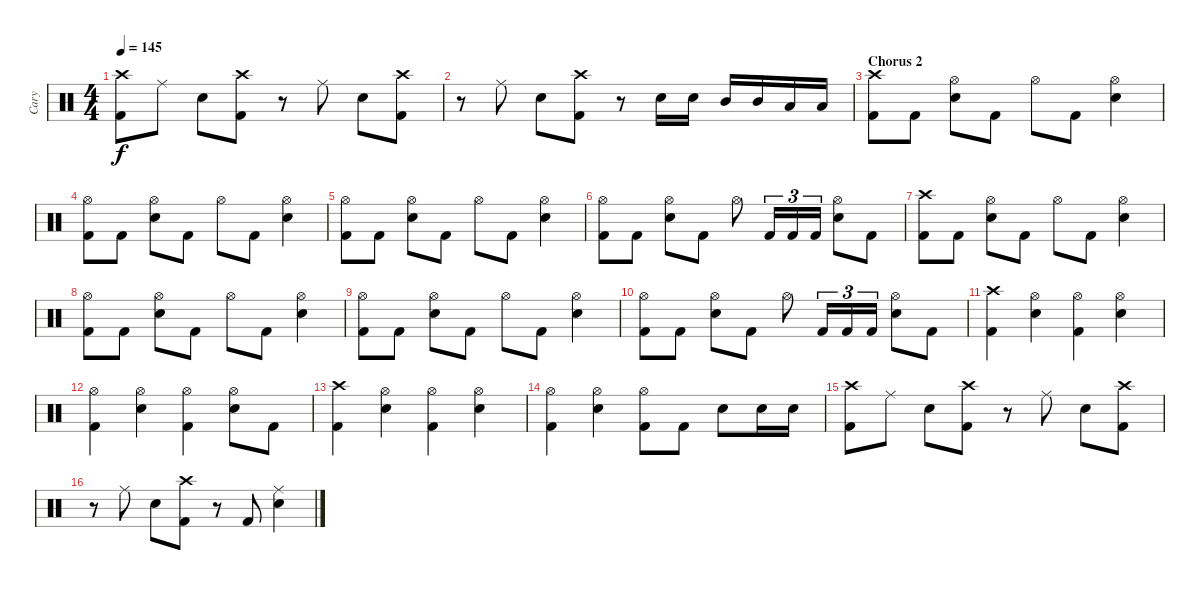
\track ("Cary" "Cary") {instrument percussion}
\staff {score}
\articulation defaults
\ts (4 4)
\tempo 145
\clef neutral
\ks c
("Crash high (hit)" "Kick (hit) 2").8{dy f} "Ride (middle)".8 "Electric Snare (hit)".8 ("Crash high (hit)" "Kick (hit) 2").8 r.8 "Ride (middle)".8 "Electric Snare (hit)".8 ("Crash high (hit)" "Kick (hit) 2").8 |
r.8 "Ride (middle)".8 "Electric Snare (hit)".8 ("Crash high (hit)" "Kick (hit) 2").8 r.8 "Electric Snare (hit)".16 "Electric Snare (hit)".16 "Mid Tom (hit)".16 "Mid Tom (hit)".16 "Low Tom (hit)".16 "Low Tom (hit)".16 |
\section ("" "Chorus 2")
("Crash high (hit)" "Kick (hit) 2").8 "Kick (hit) 2".8 ("Hi-Hat (open)" "Electric Snare (hit)").8 "Kick (hit) 2".8 "Hi-Hat (open)".8 "Kick (hit) 2".8 ("Hi-Hat (open)" "Electric Snare (hit)").4 |
("Hi-Hat (open)" "Kick (hit) 2").8 "Kick (hit) 2".8 ("Hi-Hat (open)" "Electric Snare (hit)").8 "Kick (hit) 2".8 "Hi-Hat (open)".8 "Kick (hit) 2".8 ("Hi-Hat (open)" "Electric Snare (hit)").4 |
("Hi-Hat (open)" "Kick (hit) 2").8 "Kick (hit) 2".8 ("Hi-Hat (open)" "Electric Snare (hit)").8 "Kick (hit) 2".8 "Hi-Hat (open)".8 "Kick (hit) 2".8 ("Hi-Hat (open)" "Electric Snare (hit)").4 |
("Hi-Hat (open)" "Kick (hit) 2").8 "Kick (hit) 2".8 ("Hi-Hat (open)" "Electric Snare (hit)").8 "Kick (hit) 2".8 "Hi-Hat (open)".8 "Kick (hit) 2".16{tu (3 2)} "Kick (hit) 2".16{tu (3 2)} "Kick (hit) 2".16{tu (3 2)} ("Hi-Hat (open)" "Electric Snare (hit)").8 "Kick (hit) 2".8 |
("Crash high (hit)" "Kick (hit) 2").8 "Kick (hit) 2".8 ("Hi-Hat (open)" "Electric Snare (hit)").8 "Kick (hit) 2".8 "Hi-Hat (open)".8 "Kick (hit) 2".8 ("Hi-Hat (open)" "Electric Snare (hit)").4 |
("Hi-Hat (open)" "Kick (hit) 2").8 "Kick (hit) 2".8 ("Hi-Hat (open)" "Electric Snare (hit)").8 "Kick (hit) 2".8 "Hi-Hat (open)".8 "Kick (hit) 2".8 ("Hi-Hat (open)" "Electric Snare (hit)").4 |
("Hi-Hat (open)" "Kick (hit) 2").8 "Kick (hit) 2".8 ("Hi-Hat (open)" "Electric Snare (hit)").8 "Kick (hit) 2".8 "Hi-Hat (open)".8 "Kick (hit) 2".8 ("Hi-Hat (open)" "Electric Snare (hit)").4 |
("Hi-Hat (open)" "Kick (hit) 2").8 "Kick (hit) 2".8 ("Hi-Hat (open)" "Electric Snare (hit)").8 "Kick (hit) 2".8 "Hi-Hat (open)".8 "Kick (hit) 2".16{tu (3 2)} "Kick (hit) 2".16{tu (3 2)} "Kick (hit) 2".16{tu (3 2)} ("Hi-Hat (open)" "Electric Snare (hit)").8 "Kick (hit) 2".8 |
("Crash high (hit)" "Kick (hit) 2").4 ("Hi-Hat (open)" "Electric Snare (hit)").4 ("Hi-Hat (open)" "Kick (hit) 2").4 ("Hi-Hat (open)" "Electric Snare (hit)").4 |
("Hi-Hat (open)" "Kick (hit) 2").4 ("Hi-Hat (open)" "Electric Snare (hit)").4 ("Hi-Hat (open)" "Kick (hit) 2").4 ("Hi-Hat (open)" "Electric Snare (hit)").8 "Kick (hit) 2".8 |
("Crash high (hit)" "Kick (hit) 2").4 ("Hi-Hat (open)" "Electric Snare (hit)").4 ("Hi-Hat (open)" "Kick (hit) 2").4 ("Hi-Hat (open)" "Electric Snare (hit)").4 |
("Hi-Hat (open)" "Kick (hit) 2").4 ("Hi-Hat (open)" "Electric Snare (hit)").4 ("Hi-Hat (open)" "Kick (hit) 2").8 "Kick (hit) 2".8 "Electric Snare (hit)".8 "Electric Snare (hit)".16 "Electric Snare (hit)".16 |
("Crash high (hit)" "Kick (hit) 2").8 "Ride (middle)".8 "Electric Snare (hit)".8 ("Crash high (hit)" "Kick (hit) 2").8 r.8 "Ride (middle)".8 "Electric Snare (hit)".8 ("Crash high (hit)" "Kick (hit) 2").8 |
r.8 "Ride (middle)".8 "Electric Snare (hit)".8 ("Crash high (hit)" "Kick (hit) 2").8 r.8 "Kick (hit) 2".8 ("Ride (middle)" "Electric Snare (hit)").4
